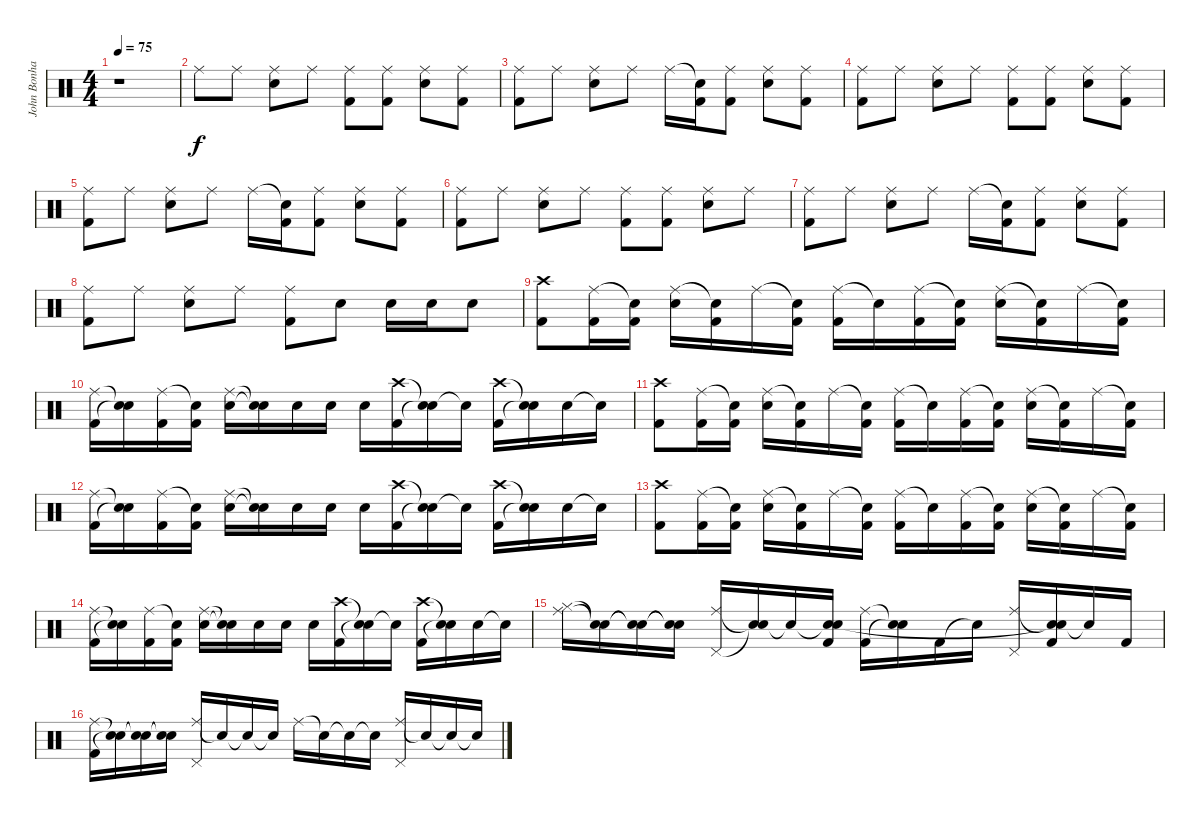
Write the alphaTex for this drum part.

\track ("John Bonham (Drums)" "John Bonha") {instrument percussion}
\staff {score}
\articulation defaults
\ts (4 4)
\tempo 75
\clef neutral
\ks c
r.1{dy f} |
"Ride (middle)".8 "Ride (middle)".8 ("Ride (middle)" "Snare (hit) 2").8 "Ride (middle)".8 ("Ride (middle)" "Kick (hit) 2").8 ("Ride (middle)" "Kick (hit) 2").8 ("Ride (middle)" "Snare (hit) 2").8 ("Ride (middle)" "Kick (hit) 2").8 |
("Ride (middle)" "Kick (hit) 2").8 "Ride (middle)".8 ("Ride (middle)" "Snare (hit) 2").8 "Ride (middle)".8 "Ride (middle)".16 ("Snare (hit)"{t} "Kick (hit) 2").16 ("Ride (middle)" "Kick (hit) 2").8 ("Ride (middle)" "Snare (hit) 2").8 ("Ride (middle)" "Kick (hit) 2").8 |
("Ride (middle)" "Kick (hit) 2").8 "Ride (middle)".8 ("Ride (middle)" "Snare (hit) 2").8 "Ride (middle)".8 ("Ride (middle)" "Kick (hit) 2").8 ("Ride (middle)" "Kick (hit) 2").8 ("Ride (middle)" "Snare (hit) 2").8 ("Ride (middle)" "Kick (hit) 2").8 |
("Ride (middle)" "Kick (hit) 2").8 "Ride (middle)".8 ("Ride (middle)" "Snare (hit) 2").8 "Ride (middle)".8 "Ride (middle)".16 ("Snare (hit)"{t} "Kick (hit) 2").16 ("Ride (middle)" "Kick (hit) 2").8 ("Ride (middle)" "Snare (hit) 2").8 ("Ride (middle)" "Kick (hit) 2").8 |
("Ride (middle)" "Kick (hit) 2").8 "Ride (middle)".8 ("Ride (middle)" "Snare (hit) 2").8 "Ride (middle)".8 ("Ride (middle)" "Kick (hit) 2").8 ("Ride (middle)" "Kick (hit) 2").8 ("Ride (middle)" "Snare (hit) 2").8 "Ride (middle)".8 |
("Ride (middle)" "Kick (hit) 2").8 "Ride (middle)".8 ("Ride (middle)" "Snare (hit) 2").8 "Ride (middle)".8 "Ride (middle)".16 ("Snare (hit)"{t} "Kick (hit) 2").16 ("Ride (middle)" "Kick (hit) 2").8 ("Ride (middle)" "Snare (hit) 2").8 ("Ride (middle)" "Kick (hit) 2").8 |
("Ride (middle)" "Kick (hit) 2").8 "Ride (middle)".8 ("Ride (middle)" "Snare (hit) 2").8 "Ride (middle)".8 ("Ride (middle)" "Kick (hit) 2").8 "Snare (hit) 2".8 "Snare (hit) 2".16 "Snare (hit) 2".16 "Snare (hit) 2".8 |
("Crash high (hit)" "Kick (hit) 2").8 ("Ride (middle)" "Kick (hit) 2").16 ("Snare (hit)"{t} "Kick (hit) 2").16 ("Ride (middle)" "Snare (hit) 2").16 ("Snare (hit)"{t} "Kick (hit) 2").16 "Ride (middle)".16 ("Snare (hit)"{t} "Kick (hit) 2").16 ("Ride (middle)" "Kick (hit) 2").16 "Snare (hit)"{t}.16 ("Ride (middle)" "Kick (hit) 2").16 ("Snare (hit)"{t} "Kick (hit) 2").16 ("Ride (middle)" "Snare (hit) 2").16 ("Snare (hit)"{t} "Kick (hit) 2").16 "Ride (middle)".16 ("Snare (hit)"{t} "Kick (hit) 2").16 |
("Ride (middle)" "Kick (hit) 2").16 ("Snare (hit)"{t} "Snare (hit)"{t}).16 ("Ride (middle)" "Kick (hit) 2").16 ("Snare (hit)"{t} "Kick (hit) 2").16 ("Ride (middle)" "Snare (hit) 2").16 ("Snare (hit)"{t} "Snare (hit)"{t}).16 "Snare (hit) 2".16 "Snare (hit) 2".16 "Snare (hit) 2".16 ("Crash high (hit)" "Kick (hit) 2").16 ("Snare (hit)"{t} "Snare (hit)"{t}).16 "Snare (hit)"{t}.16 ("Crash high (hit)" "Kick (hit) 2").16 ("Snare (hit)"{t} "Snare (hit)"{t}).16 "Snare (hit) 2".16 "Snare (hit)"{t}.16 |
("Crash high (hit)" "Kick (hit) 2").8 ("Ride (middle)" "Kick (hit) 2").16 ("Snare (hit)"{t} "Kick (hit) 2").16 ("Ride (middle)" "Snare (hit) 2").16 ("Snare (hit)"{t} "Kick (hit) 2").16 "Ride (middle)".16 ("Snare (hit)"{t} "Kick (hit) 2").16 ("Ride (middle)" "Kick (hit) 2").16 "Snare (hit)"{t}.16 ("Ride (middle)" "Kick (hit) 2").16 ("Snare (hit)"{t} "Kick (hit) 2").16 ("Ride (middle)" "Snare (hit) 2").16 ("Snare (hit)"{t} "Kick (hit) 2").16 "Ride (middle)".16 ("Snare (hit)"{t} "Kick (hit) 2").16 |
("Ride (middle)" "Kick (hit) 2").16 ("Snare (hit)"{t} "Snare (hit)"{t}).16 ("Ride (middle)" "Kick (hit) 2").16 ("Snare (hit)"{t} "Kick (hit) 2").16 ("Ride (middle)" "Snare (hit) 2").16 ("Snare (hit)"{t} "Snare (hit)"{t}).16 "Snare (hit) 2".16 "Snare (hit) 2".16 "Snare (hit) 2".16 ("Crash high (hit)" "Kick (hit) 2").16 ("Snare (hit)"{t} "Snare (hit)"{t}).16 "Snare (hit)"{t}.16 ("Crash high (hit)" "Kick (hit) 2").16 ("Snare (hit)"{t} "Snare (hit)"{t}).16 "Snare (hit) 2".16 "Snare (hit)"{t}.16 |
("Crash high (hit)" "Kick (hit) 2").8 ("Ride (middle)" "Kick (hit) 2").16 ("Snare (hit)"{t} "Kick (hit) 2").16 ("Ride (middle)" "Snare (hit) 2").16 ("Snare (hit)"{t} "Kick (hit) 2").16 "Ride (middle)".16 ("Snare (hit)"{t} "Kick (hit) 2").16 ("Ride (middle)" "Kick (hit) 2").16 "Snare (hit)"{t}.16 ("Ride (middle)" "Kick (hit) 2").16 ("Snare (hit)"{t} "Kick (hit) 2").16 ("Ride (middle)" "Snare (hit) 2").16 ("Snare (hit)"{t} "Kick (hit) 2").16 "Ride (middle)".16 ("Snare (hit)"{t} "Kick (hit) 2").16 |
("Ride (middle)" "Kick (hit) 2").16 ("Snare (hit)"{t} "Snare (hit)"{t}).16 ("Ride (middle)" "Kick (hit) 2").16 ("Snare (hit)"{t} "Kick (hit) 2").16 ("Ride (middle)" "Snare (hit) 2").16 ("Snare (hit)"{t} "Snare (hit)"{t}).16 "Snare (hit) 2".16 "Snare (hit) 2".16 "Snare (hit) 2".16 ("Crash high (hit)" "Kick (hit) 2").16 ("Snare (hit)"{t} "Snare (hit)"{t}).16 "Snare (hit)"{t}.16 ("Crash high (hit)" "Kick (hit) 2").16 ("Snare (hit)"{t} "Snare (hit)"{t}).16 "Snare (hit) 2".16 "Snare (hit)"{t}.16 |
("Ride (middle)" "Hi-Hat (closed)").16 ("Snare (hit)"{t} "Snare (hit)"{t}).16 ("Snare (hit)"{t} "Snare (hit)"{t}).16 ("Snare (hit)"{t} "Snare (hit)"{t}).16 ("Ride (middle)" "Pedal Hi-Hat (hit)").16 ("Snare (hit)"{t} "Snare (hit)"{t}).16 "Snare (hit)"{t}.16 ("Snare (hit)"{t} "Kick (hit) 2" "Snare (hit)").16 ("Ride (middle)" "Kick (hit) 2").16 ("Snare (hit)"{t} "Snare (hit)"{t}).16 "Kick (hit) 2".16 "Snare (hit)"{t}.16 ("Ride (middle)" "Pedal Hi-Hat (hit)").16 ("Snare (hit)"{t} "Kick (hit) 2" "Snare (hit)"{t}).16 "Snare (hit)"{t}.16 "Kick (hit) 2".16 |
("Ride (middle)" "Kick (hit) 2").16 ("Snare (hit)"{t} "Snare (hit)"{t}).16 ("Snare (hit)"{t} "Snare (hit)"{t}).16 ("Snare (hit)"{t} "Snare (hit)"{t}).16 ("Ride (middle)" "Pedal Hi-Hat (hit)").16 "Snare (hit)"{t}.16 "Snare (hit)"{t}.16 "Snare (hit)"{t}.16 "Ride (middle)".16 "Snare (hit)"{t}.16 "Snare (hit)"{t}.16 "Snare (hit)"{t}.16 ("Ride (middle)" "Pedal Hi-Hat (hit)").16 "Snare (hit)"{t}.16 "Snare (hit)"{t}.16 "Snare (hit)"{t}.16
